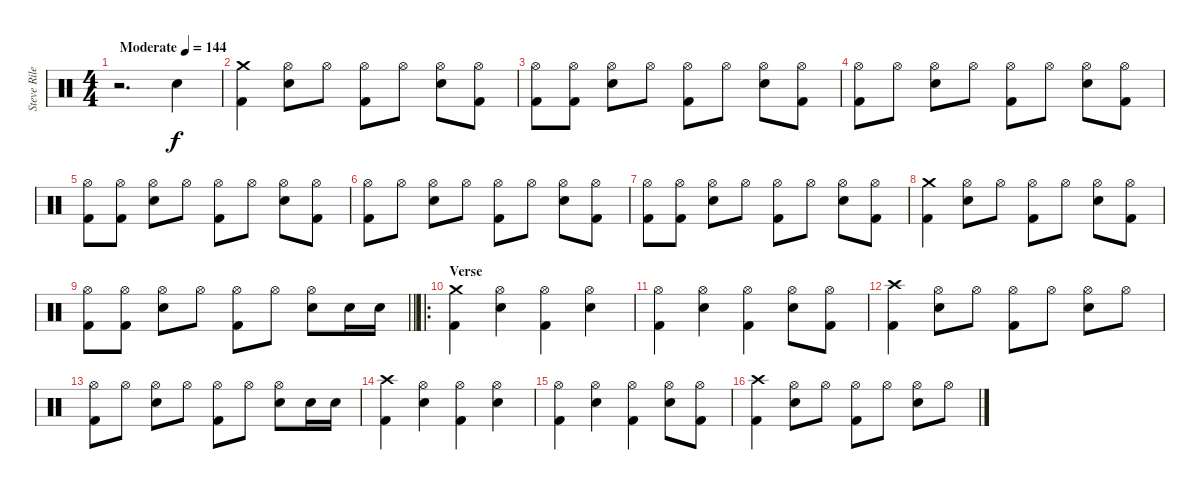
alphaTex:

\track ("Steve Riley" "Steve Rile") {instrument percussion}
\staff {score}
\articulation defaults
\ts (4 4)
\tempo (144 "Moderate")
\clef neutral
\ks c
r.2{d dy f} "Snare (hit) 2".4 |
("Crash medium (hit)" "Kick (hit) 2").4 ("Hi-Hat (open)" "Snare (hit) 2").8 "Hi-Hat (open)".8 ("Hi-Hat (open)" "Kick (hit) 2").8 "Hi-Hat (open)".8 ("Hi-Hat (open)" "Snare (hit) 2").8 ("Hi-Hat (open)" "Kick (hit) 2").8 |
("Hi-Hat (open)" "Kick (hit) 2").8 ("Hi-Hat (open)" "Kick (hit) 2").8 ("Hi-Hat (open)" "Snare (hit) 2").8 "Hi-Hat (open)".8 ("Hi-Hat (open)" "Kick (hit) 2").8 "Hi-Hat (open)".8 ("Hi-Hat (open)" "Snare (hit) 2").8 ("Hi-Hat (open)" "Kick (hit) 2").8 |
("Hi-Hat (open)" "Kick (hit) 2").8 "Hi-Hat (open)".8 ("Hi-Hat (open)" "Snare (hit) 2").8 "Hi-Hat (open)".8 ("Hi-Hat (open)" "Kick (hit) 2").8 "Hi-Hat (open)".8 ("Hi-Hat (open)" "Snare (hit) 2").8 ("Hi-Hat (open)" "Kick (hit) 2").8 |
("Hi-Hat (open)" "Kick (hit) 2").8 ("Hi-Hat (open)" "Kick (hit) 2").8 ("Hi-Hat (open)" "Snare (hit) 2").8 "Hi-Hat (open)".8 ("Hi-Hat (open)" "Kick (hit) 2").8 "Hi-Hat (open)".8 ("Hi-Hat (open)" "Snare (hit) 2").8 ("Hi-Hat (open)" "Kick (hit) 2").8 |
("Hi-Hat (open)" "Kick (hit) 2").8 "Hi-Hat (open)".8 ("Hi-Hat (open)" "Snare (hit) 2").8 "Hi-Hat (open)".8 ("Hi-Hat (open)" "Kick (hit) 2").8 "Hi-Hat (open)".8 ("Hi-Hat (open)" "Snare (hit) 2").8 ("Hi-Hat (open)" "Kick (hit) 2").8 |
("Hi-Hat (open)" "Kick (hit) 2").8 ("Hi-Hat (open)" "Kick (hit) 2").8 ("Hi-Hat (open)" "Snare (hit) 2").8 "Hi-Hat (open)".8 ("Hi-Hat (open)" "Kick (hit) 2").8 "Hi-Hat (open)".8 ("Hi-Hat (open)" "Snare (hit) 2").8 ("Hi-Hat (open)" "Kick (hit) 2").8 |
("Crash medium (hit)" "Kick (hit) 2").4 ("Hi-Hat (open)" "Snare (hit) 2").8 "Hi-Hat (open)".8 ("Hi-Hat (open)" "Kick (hit) 2").8 "Hi-Hat (open)".8 ("Hi-Hat (open)" "Snare (hit) 2").8 ("Hi-Hat (open)" "Kick (hit) 2").8 |
\barLineRight lightlight
("Hi-Hat (open)" "Kick (hit) 2").8 ("Hi-Hat (open)" "Kick (hit) 2").8 ("Hi-Hat (open)" "Snare (hit) 2").8 "Hi-Hat (open)".8 ("Hi-Hat (open)" "Kick (hit) 2").8 "Hi-Hat (open)".8 ("Hi-Hat (open)" "Snare (hit) 2").8 "Snare (hit) 2".16 "Snare (hit) 2".16 |
\ro
\section ("" "Verse")
("Crash medium (hit)" "Kick (hit) 2").4 ("Hi-Hat (open)" "Snare (hit) 2").4 ("Hi-Hat (open)" "Kick (hit) 2").4 ("Hi-Hat (open)" "Snare (hit) 2").4 |
("Hi-Hat (open)" "Kick (hit) 2").4 ("Hi-Hat (open)" "Snare (hit) 2").4 ("Hi-Hat (open)" "Kick (hit) 2").4 ("Hi-Hat (open)" "Snare (hit) 2").8 ("Hi-Hat (open)" "Kick (hit) 2").8 |
("Crash high (hit)" "Kick (hit) 2").4 ("Hi-Hat (open)" "Snare (hit) 2").8 "Hi-Hat (open)".8 ("Hi-Hat (open)" "Kick (hit) 2").8 "Hi-Hat (open)".8 ("Hi-Hat (open)" "Snare (hit) 2").8 "Hi-Hat (open)".8 |
("Hi-Hat (open)" "Kick (hit) 2").8 "Hi-Hat (open)".8 ("Hi-Hat (open)" "Snare (hit) 2").8 "Hi-Hat (open)".8 ("Hi-Hat (open)" "Kick (hit) 2").8 "Hi-Hat (open)".8 ("Hi-Hat (open)" "Snare (hit) 2").8 "Snare (hit) 2".16 "Snare (hit) 2".16 |
("Crash high (hit)" "Kick (hit) 2").4 ("Hi-Hat (open)" "Snare (hit) 2").4 ("Hi-Hat (open)" "Kick (hit) 2").4 ("Hi-Hat (open)" "Snare (hit) 2").4 |
("Hi-Hat (open)" "Kick (hit) 2").4 ("Hi-Hat (open)" "Snare (hit) 2").4 ("Hi-Hat (open)" "Kick (hit) 2").4 ("Hi-Hat (open)" "Snare (hit) 2").8 ("Hi-Hat (open)" "Kick (hit) 2").8 |
("Crash high (hit)" "Kick (hit) 2").4 ("Hi-Hat (open)" "Snare (hit) 2").8 "Hi-Hat (open)".8 ("Hi-Hat (open)" "Kick (hit) 2").8 "Hi-Hat (open)".8 ("Hi-Hat (open)" "Snare (hit) 2").8 "Hi-Hat (open)".8
